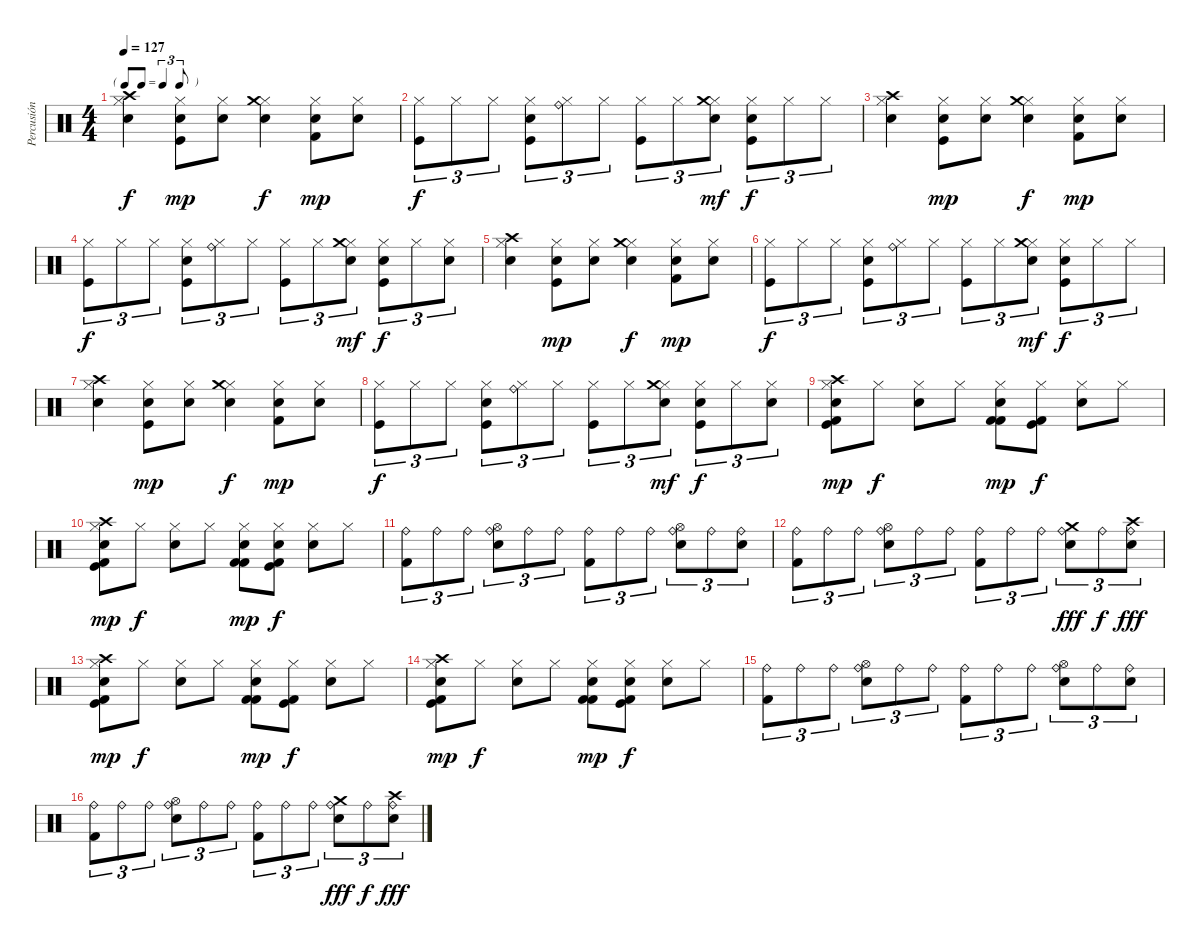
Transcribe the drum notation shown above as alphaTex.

\track ("Percusión" "Percusión") {instrument percussion}
\staff {score}
\articulation defaults
\ts (4 4)
\tf triplet8th
\tempo 127
\clef neutral
\ks c
("Hi-Hat (closed)" "Crash high (hit)" "Snare (hit) 2").4{dy f} ("Hi-Hat (closed)" "Snare (hit) 2" "Kick (hit)").8{dy mp} ("Hi-Hat (closed)" "Snare (hit) 2").8 ("Hi-Hat (closed)" "Crash medium (hit)" "Snare (hit) 2").4{dy f} ("Hi-Hat (closed)" "Snare (hit) 2" "Kick (hit) 2").8{dy mp} ("Hi-Hat (closed)" "Snare (hit) 2").8 |
("Hi-Hat (closed)" "Kick (hit)").8{tu (3 2) dy f} "Hi-Hat (closed)".8{tu (3 2)} "Hi-Hat (closed)".8{tu (3 2)} ("Hi-Hat (closed)" "Snare (hit) 2" "Kick (hit)").8{tu (3 2)} ("Hi-Hat (closed)" "Ride (bell)").8{tu (3 2)} "Hi-Hat (closed)".8{tu (3 2)} ("Hi-Hat (closed)" "Kick (hit)").8{tu (3 2)} "Hi-Hat (closed)".8{tu (3 2)} ("Hi-Hat (closed)" "Crash medium (hit)" "Snare (hit) 2").8{tu (3 2) dy mf} ("Hi-Hat (closed)" "Snare (hit) 2" "Kick (hit)").8{tu (3 2) dy f} "Hi-Hat (closed)".8{tu (3 2)} "Hi-Hat (closed)".8{tu (3 2)} |
("Hi-Hat (closed)" "Crash high (hit)" "Snare (hit) 2").4 ("Hi-Hat (closed)" "Snare (hit) 2" "Kick (hit)").8{dy mp} ("Hi-Hat (closed)" "Snare (hit) 2").8 ("Hi-Hat (closed)" "Crash medium (hit)" "Snare (hit) 2").4{dy f} ("Hi-Hat (closed)" "Snare (hit) 2" "Kick (hit) 2").8{dy mp} ("Hi-Hat (closed)" "Snare (hit) 2").8 |
("Hi-Hat (closed)" "Kick (hit)").8{tu (3 2) dy f} "Hi-Hat (closed)".8{tu (3 2)} "Hi-Hat (closed)".8{tu (3 2)} ("Hi-Hat (closed)" "Snare (hit) 2" "Kick (hit)").8{tu (3 2)} ("Hi-Hat (closed)" "Ride (bell)").8{tu (3 2)} "Hi-Hat (closed)".8{tu (3 2)} ("Hi-Hat (closed)" "Kick (hit)").8{tu (3 2)} "Hi-Hat (closed)".8{tu (3 2)} ("Hi-Hat (closed)" "Crash medium (hit)" "Snare (hit) 2").8{tu (3 2) dy mf} ("Hi-Hat (closed)" "Snare (hit) 2" "Kick (hit)").8{tu (3 2) dy f} "Hi-Hat (closed)".8{tu (3 2)} ("Hi-Hat (closed)" "Snare (hit) 2").8{tu (3 2)} |
("Hi-Hat (closed)" "Crash high (hit)" "Snare (hit) 2").4 ("Hi-Hat (closed)" "Snare (hit) 2" "Kick (hit)").8{dy mp} ("Hi-Hat (closed)" "Snare (hit) 2").8 ("Hi-Hat (closed)" "Crash medium (hit)" "Snare (hit) 2").4{dy f} ("Hi-Hat (closed)" "Snare (hit) 2" "Kick (hit) 2").8{dy mp} ("Hi-Hat (closed)" "Snare (hit) 2").8 |
("Hi-Hat (closed)" "Kick (hit)").8{tu (3 2) dy f} "Hi-Hat (closed)".8{tu (3 2)} "Hi-Hat (closed)".8{tu (3 2)} ("Hi-Hat (closed)" "Snare (hit) 2" "Kick (hit)").8{tu (3 2)} ("Hi-Hat (closed)" "Ride (bell)").8{tu (3 2)} "Hi-Hat (closed)".8{tu (3 2)} ("Hi-Hat (closed)" "Kick (hit)").8{tu (3 2)} "Hi-Hat (closed)".8{tu (3 2)} ("Hi-Hat (closed)" "Crash medium (hit)" "Snare (hit) 2").8{tu (3 2) dy mf} ("Hi-Hat (closed)" "Snare (hit) 2" "Kick (hit)").8{tu (3 2) dy f} "Hi-Hat (closed)".8{tu (3 2)} "Hi-Hat (closed)".8{tu (3 2)} |
("Hi-Hat (closed)" "Crash high (hit)" "Snare (hit) 2").4 ("Hi-Hat (closed)" "Snare (hit) 2" "Kick (hit)").8{dy mp} ("Hi-Hat (closed)" "Snare (hit) 2").8 ("Hi-Hat (closed)" "Crash medium (hit)" "Snare (hit) 2").4{dy f} ("Hi-Hat (closed)" "Snare (hit) 2" "Kick (hit) 2").8{dy mp} ("Hi-Hat (closed)" "Snare (hit) 2").8 |
("Hi-Hat (closed)" "Kick (hit)").8{tu (3 2) dy f} "Hi-Hat (closed)".8{tu (3 2)} "Hi-Hat (closed)".8{tu (3 2)} ("Hi-Hat (closed)" "Snare (hit) 2" "Kick (hit)").8{tu (3 2)} ("Hi-Hat (closed)" "Ride (bell)").8{tu (3 2)} "Hi-Hat (closed)".8{tu (3 2)} ("Hi-Hat (closed)" "Kick (hit)").8{tu (3 2)} "Hi-Hat (closed)".8{tu (3 2)} ("Hi-Hat (closed)" "Crash medium (hit)" "Snare (hit) 2").8{tu (3 2) dy mf} ("Hi-Hat (closed)" "Snare (hit) 2" "Kick (hit)").8{tu (3 2) dy f} "Hi-Hat (closed)".8{tu (3 2)} ("Hi-Hat (closed)" "Snare (hit) 2").8{tu (3 2)} |
("Hi-Hat (closed)" "Crash high (hit)" "Snare (hit) 2" "Kick (hit) 2" "Kick (hit)").8{dy mp} "Hi-Hat (closed)".8{dy f} ("Hi-Hat (closed)" "Snare (hit) 2").8 "Hi-Hat (closed)".8 ("Hi-Hat (closed)" "Snare (hit) 2" "Kick (hit) 2" "Kick (hit) 2").8{dy mp} ("Hi-Hat (closed)" "Kick (hit) 2" "Kick (hit)").8{dy f} ("Hi-Hat (closed)" "Snare (hit) 2").8 "Hi-Hat (closed)".8 |
("Hi-Hat (closed)" "Crash high (hit)" "Snare (hit) 2" "Kick (hit) 2" "Kick (hit)").8{dy mp} "Hi-Hat (closed)".8{dy f} ("Hi-Hat (closed)" "Snare (hit) 2").8 "Hi-Hat (closed)".8 ("Hi-Hat (closed)" "Snare (hit) 2" "Kick (hit) 2" "Kick (hit) 2").8{dy mp} ("Hi-Hat (closed)" "Snare (hit) 2" "Kick (hit) 2" "Kick (hit)").8{dy f} ("Hi-Hat (closed)" "Snare (hit) 2").8 "Hi-Hat (closed)".8 |
("Ride (bell)" "Kick (hit) 2").8{tu (3 2)} "Ride (bell)".8{tu (3 2)} "Ride (bell)".8{tu (3 2)} ("Ride (bell)" "Hi-Hat (open)" "Snare (hit) 2").8{tu (3 2)} "Ride (bell)".8{tu (3 2)} "Ride (bell)".8{tu (3 2)} ("Ride (bell)" "Kick (hit) 2").8{tu (3 2)} "Ride (bell)".8{tu (3 2)} "Ride (bell)".8{tu (3 2)} ("Ride (bell)" "Hi-Hat (open)" "Snare (hit) 2").8{tu (3 2)} "Ride (bell)".8{tu (3 2)} ("Ride (bell)" "Snare (hit) 2").8{tu (3 2)} |
("Ride (bell)" "Kick (hit) 2").8{tu (3 2)} "Ride (bell)".8{tu (3 2)} "Ride (bell)".8{tu (3 2)} ("Ride (bell)" "Hi-Hat (open)" "Snare (hit) 2").8{tu (3 2)} "Ride (bell)".8{tu (3 2)} "Ride (bell)".8{tu (3 2)} ("Ride (bell)" "Kick (hit) 2").8{tu (3 2)} "Ride (bell)".8{tu (3 2)} "Ride (bell)".8{tu (3 2)} ("Ride (bell)" "Crash medium (hit)" "Snare (hit) 2").8{tu (3 2) dy fff} "Ride (bell)".8{tu (3 2) dy f} ("Ride (bell)" "Crash high (hit)" "Snare (hit) 2").8{tu (3 2) dy fff} |
("Hi-Hat (closed)" "Crash high (hit)" "Snare (hit) 2" "Kick (hit) 2" "Kick (hit)").8{dy mp} "Hi-Hat (closed)".8{dy f} ("Hi-Hat (closed)" "Snare (hit) 2").8 "Hi-Hat (closed)".8 ("Hi-Hat (closed)" "Snare (hit) 2" "Kick (hit) 2" "Kick (hit) 2").8{dy mp} ("Hi-Hat (closed)" "Kick (hit) 2" "Kick (hit)").8{dy f} ("Hi-Hat (closed)" "Snare (hit) 2").8 "Hi-Hat (closed)".8 |
("Hi-Hat (closed)" "Crash high (hit)" "Snare (hit) 2" "Kick (hit) 2" "Kick (hit)").8{dy mp} "Hi-Hat (closed)".8{dy f} ("Hi-Hat (closed)" "Snare (hit) 2").8 "Hi-Hat (closed)".8 ("Hi-Hat (closed)" "Snare (hit) 2" "Kick (hit) 2" "Kick (hit) 2").8{dy mp} ("Hi-Hat (closed)" "Snare (hit) 2" "Kick (hit) 2" "Kick (hit)").8{dy f} ("Hi-Hat (closed)" "Snare (hit) 2").8 "Hi-Hat (closed)".8 |
("Ride (bell)" "Kick (hit) 2").8{tu (3 2)} "Ride (bell)".8{tu (3 2)} "Ride (bell)".8{tu (3 2)} ("Ride (bell)" "Hi-Hat (open)" "Snare (hit) 2").8{tu (3 2)} "Ride (bell)".8{tu (3 2)} "Ride (bell)".8{tu (3 2)} ("Ride (bell)" "Kick (hit) 2").8{tu (3 2)} "Ride (bell)".8{tu (3 2)} "Ride (bell)".8{tu (3 2)} ("Ride (bell)" "Hi-Hat (open)" "Snare (hit) 2").8{tu (3 2)} "Ride (bell)".8{tu (3 2)} ("Ride (bell)" "Snare (hit) 2").8{tu (3 2)} |
("Ride (bell)" "Kick (hit) 2").8{tu (3 2)} "Ride (bell)".8{tu (3 2)} "Ride (bell)".8{tu (3 2)} ("Ride (bell)" "Hi-Hat (open)" "Snare (hit) 2").8{tu (3 2)} "Ride (bell)".8{tu (3 2)} "Ride (bell)".8{tu (3 2)} ("Ride (bell)" "Kick (hit) 2").8{tu (3 2)} "Ride (bell)".8{tu (3 2)} "Ride (bell)".8{tu (3 2)} ("Ride (bell)" "Crash medium (hit)" "Snare (hit) 2").8{tu (3 2) dy fff} "Ride (bell)".8{tu (3 2) dy f} ("Ride (bell)" "Crash high (hit)" "Snare (hit) 2").8{tu (3 2) dy fff}
